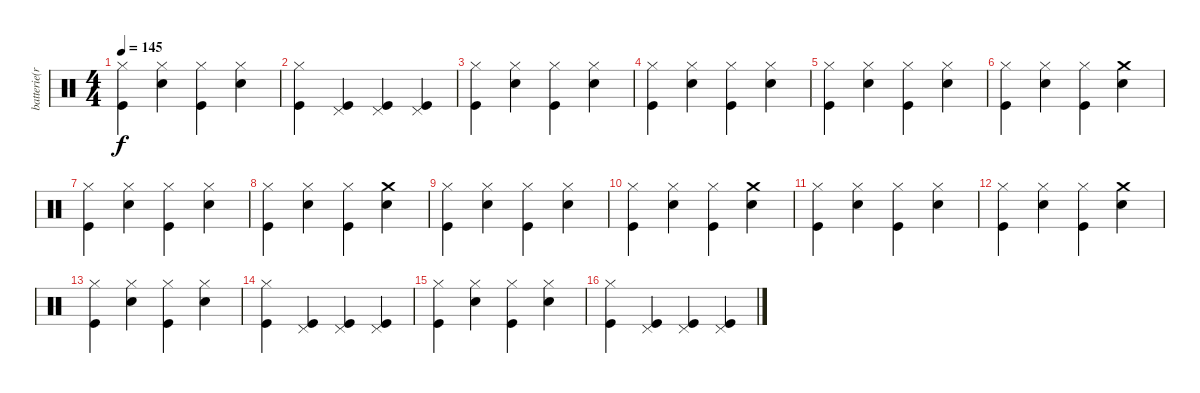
\track ("batterie(rimbaud)" "batterie(r") {instrument percussion}
\staff {score}
\articulation defaults
\ts (4 4)
\tempo 145
\clef neutral
\ks c
("Hi-Hat (closed)" "Kick (hit)").4{dy f} ("Hi-Hat (closed)" "Snare (hit) 2").4 ("Hi-Hat (closed)" "Kick (hit)").4 ("Hi-Hat (closed)" "Snare (hit) 2").4 |
("Hi-Hat (closed)" "Kick (hit)").4 ("Pedal Hi-Hat (hit)" "Kick (hit)").4 ("Pedal Hi-Hat (hit)" "Kick (hit)").4 ("Pedal Hi-Hat (hit)" "Kick (hit)").4 |
("Hi-Hat (closed)" "Kick (hit)").4 ("Hi-Hat (closed)" "Snare (hit) 2").4 ("Hi-Hat (closed)" "Kick (hit)").4 ("Hi-Hat (closed)" "Snare (hit) 2").4 |
("Hi-Hat (closed)" "Kick (hit)").4 ("Hi-Hat (closed)" "Snare (hit) 2").4 ("Hi-Hat (closed)" "Kick (hit)").4 ("Hi-Hat (closed)" "Snare (hit) 2").4 |
("Hi-Hat (closed)" "Kick (hit)").4 ("Hi-Hat (closed)" "Snare (hit) 2").4 ("Hi-Hat (closed)" "Kick (hit)").4 ("Hi-Hat (closed)" "Snare (hit) 2").4 |
("Hi-Hat (closed)" "Kick (hit)").4 ("Hi-Hat (closed)" "Snare (hit) 2").4 ("Hi-Hat (closed)" "Kick (hit)").4 ("Crash medium (hit)" "Snare (hit) 2").4 |
("Hi-Hat (closed)" "Kick (hit)").4 ("Hi-Hat (closed)" "Snare (hit) 2").4 ("Hi-Hat (closed)" "Kick (hit)").4 ("Hi-Hat (closed)" "Snare (hit) 2").4 |
("Hi-Hat (closed)" "Kick (hit)").4 ("Hi-Hat (closed)" "Snare (hit) 2").4 ("Hi-Hat (closed)" "Kick (hit)").4 ("Crash medium (hit)" "Snare (hit) 2").4 |
("Hi-Hat (closed)" "Kick (hit)").4 ("Hi-Hat (closed)" "Snare (hit) 2").4 ("Hi-Hat (closed)" "Kick (hit)").4 ("Hi-Hat (closed)" "Snare (hit) 2").4 |
("Hi-Hat (closed)" "Kick (hit)").4 ("Hi-Hat (closed)" "Snare (hit) 2").4 ("Hi-Hat (closed)" "Kick (hit)").4 ("Crash medium (hit)" "Snare (hit) 2").4 |
("Hi-Hat (closed)" "Kick (hit)").4 ("Hi-Hat (closed)" "Snare (hit) 2").4 ("Hi-Hat (closed)" "Kick (hit)").4 ("Hi-Hat (closed)" "Snare (hit) 2").4 |
("Hi-Hat (closed)" "Kick (hit)").4 ("Hi-Hat (closed)" "Snare (hit) 2").4 ("Hi-Hat (closed)" "Kick (hit)").4 ("Crash medium (hit)" "Snare (hit) 2").4 |
("Hi-Hat (closed)" "Kick (hit)").4 ("Hi-Hat (closed)" "Snare (hit) 2").4 ("Hi-Hat (closed)" "Kick (hit)").4 ("Hi-Hat (closed)" "Snare (hit) 2").4 |
("Hi-Hat (closed)" "Kick (hit)").4 ("Pedal Hi-Hat (hit)" "Kick (hit)").4 ("Pedal Hi-Hat (hit)" "Kick (hit)").4 ("Pedal Hi-Hat (hit)" "Kick (hit)").4 |
("Hi-Hat (closed)" "Kick (hit)").4 ("Hi-Hat (closed)" "Snare (hit) 2").4 ("Hi-Hat (closed)" "Kick (hit)").4 ("Hi-Hat (closed)" "Snare (hit) 2").4 |
("Hi-Hat (closed)" "Kick (hit)").4 ("Pedal Hi-Hat (hit)" "Kick (hit)").4 ("Pedal Hi-Hat (hit)" "Kick (hit)").4 ("Pedal Hi-Hat (hit)" "Kick (hit)").4
